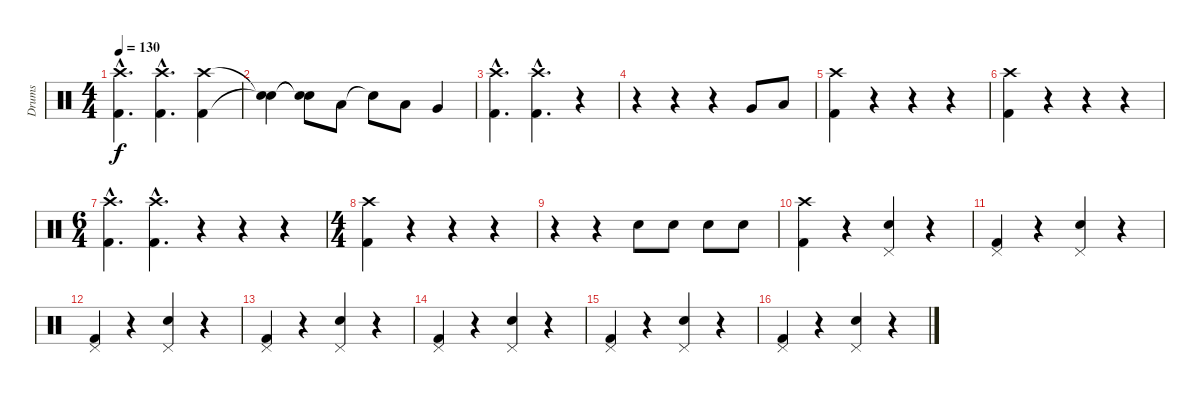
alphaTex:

\track ("Drums" "Drums") {instrument percussion}
\staff {score}
\articulation defaults
\ts (4 4)
\tempo 130
\clef neutral
\ks c
("Crash high (hit)"{hac} "Kick (hit) 2"{hac}).4{d dy f} ("Crash high (hit)"{hac} "Kick (hit) 2"{hac}).4{d} ("Crash high (hit)" "Kick (hit) 2").4 |
("Snare (hit)"{t} "Snare (hit)"{t}).4 ("Snare (hit)"{t} "Snare (hit)"{t}).8 "Low Tom (hit)".8 "Snare (hit)"{t}.8 "Low Tom (hit)".8 "Very Low Tom (hit)".4 |
("Crash high (hit)"{hac} "Kick (hit) 2"{hac}).4{d} ("Crash high (hit)"{hac} "Kick (hit) 2"{hac}).4{d} r.4 |
r.4 r.4 r.4 "Very Low Tom (hit)".8 "Low Tom (hit)".8 |
("Crash high (hit)" "Kick (hit) 2").4 r.4 r.4 r.4 |
("Crash high (hit)" "Kick (hit) 2").4 r.4 r.4 r.4 |
\ts (6 4)
("Crash high (hit)"{hac} "Kick (hit) 2"{hac}).4{d} ("Crash high (hit)"{hac} "Kick (hit) 2"{hac}).4{d} r.4 r.4 r.4 |
\ts (4 4)
("Crash high (hit)" "Kick (hit) 2").4 r.4 r.4 r.4 |
r.4 r.4 "Electric Snare (hit)".8 "Electric Snare (hit)".8 "Electric Snare (hit)".8 "Electric Snare (hit)".8 |
("Crash high (hit)" "Kick (hit) 2").4 r.4 ("Pedal Hi-Hat (hit)" "Electric Snare (hit)").4 r.4 |
("Pedal Hi-Hat (hit)" "Kick (hit) 2").4 r.4 ("Pedal Hi-Hat (hit)" "Electric Snare (hit)").4 r.4 |
("Pedal Hi-Hat (hit)" "Kick (hit) 2").4 r.4 ("Pedal Hi-Hat (hit)" "Electric Snare (hit)").4 r.4 |
("Pedal Hi-Hat (hit)" "Kick (hit) 2").4 r.4 ("Pedal Hi-Hat (hit)" "Electric Snare (hit)").4 r.4 |
("Pedal Hi-Hat (hit)" "Kick (hit) 2").4 r.4 ("Pedal Hi-Hat (hit)" "Electric Snare (hit)").4 r.4 |
("Pedal Hi-Hat (hit)" "Kick (hit) 2").4 r.4 ("Pedal Hi-Hat (hit)" "Electric Snare (hit)").4 r.4 |
("Pedal Hi-Hat (hit)" "Kick (hit) 2").4 r.4 ("Pedal Hi-Hat (hit)" "Electric Snare (hit)").4 r.4
